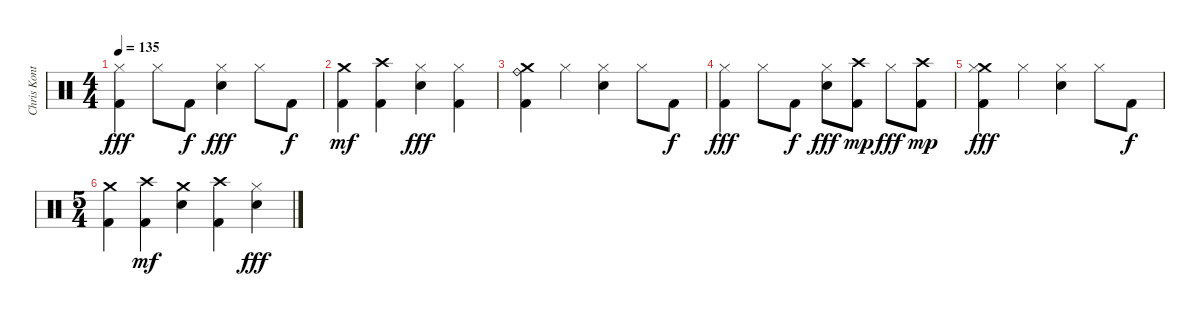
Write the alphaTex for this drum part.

\track ("Chris Kontos" "Chris Kont") {instrument percussion}
\staff {score}
\articulation defaults
\ts (4 4)
\tempo 135
\clef neutral
\ks c
("Hi-Hat (closed)" "Kick (hit) 2").4{dy fff volume 6} "Hi-Hat (closed)".8 "Kick (hit) 2".8{dy f} ("Electric Snare (hit)" "Hi-Hat (closed)").4{dy fff} "Hi-Hat (closed)".8 "Kick (hit) 2".8{dy f} |
("Crash medium (hit)" "Kick (hit) 2").4{dy mf} ("Crash high (hit)" "Kick (hit) 2").4 ("Electric Snare (hit)" "Hi-Hat (closed)").4{dy fff} ("Hi-Hat (closed)" "Kick (hit) 2").4 |
("Crash medium (hit)" "Ride (bell)" "Kick (hit) 2").4{volume 4} "Hi-Hat (closed)".4 ("Electric Snare (hit)" "Hi-Hat (closed)").4 "Hi-Hat (closed)".8 "Kick (hit) 2".8{dy f} |
("Hi-Hat (closed)" "Kick (hit) 2").4{dy fff volume 3} "Hi-Hat (closed)".8 "Kick (hit) 2".8{dy f} ("Electric Snare (hit)" "Hi-Hat (closed)").8{dy fff} ("Crash high (hit)" "Kick (hit) 2").8{dy mp} "Hi-Hat (closed)".8{dy fff} ("Crash high (hit)" "Kick (hit) 2").8{dy mp} |
("Crash medium (hit)" "Hi-Hat (closed)" "Kick (hit) 2").4{dy fff volume 2} "Hi-Hat (closed)".4 ("Electric Snare (hit)" "Hi-Hat (closed)").4 "Hi-Hat (closed)".8 "Kick (hit) 2".8{dy f} |
\ts (5 4)
("Crash medium (hit)" "Kick (hit) 2").4{volume 0} ("Crash high (hit)" "Kick (hit) 2").4{dy mf} ("Crash medium (hit)" "Electric Snare (hit)").4 ("Crash high (hit)" "Kick (hit) 2").4 ("Electric Snare (hit)" "Hi-Hat (closed)").4{dy fff}
